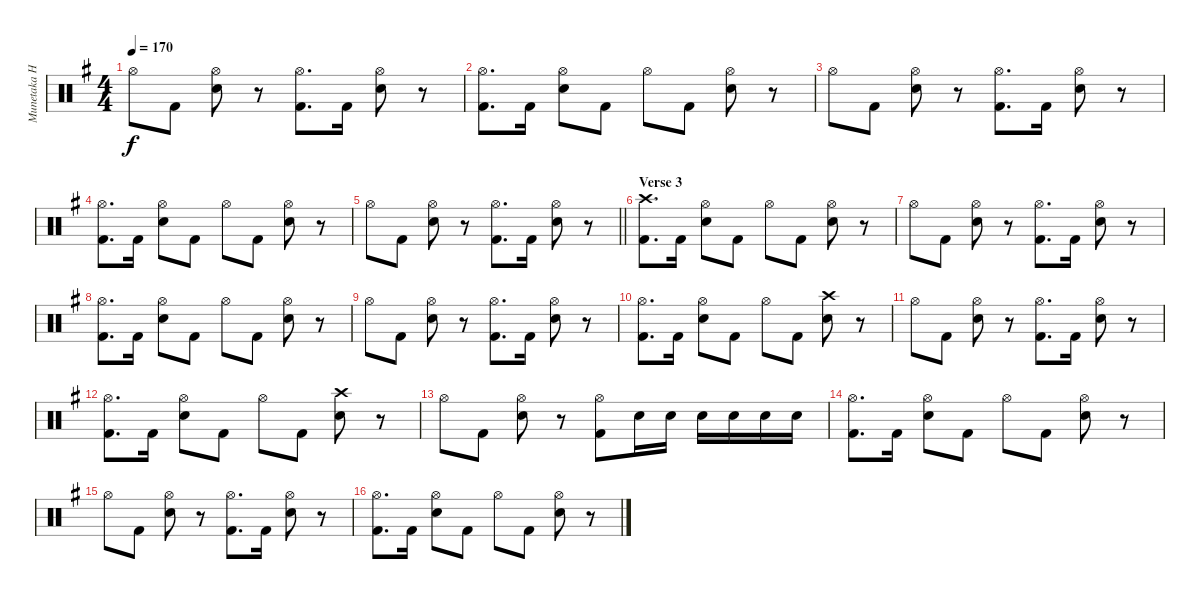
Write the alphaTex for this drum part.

\track ("Munetaka Higuchi" "Munetaka H") {instrument percussion}
\staff {score}
\articulation defaults
\ts (4 4)
\tempo 170
\clef neutral
\ks eminor "Hi-Hat (open)".8{dy f} "Kick (hit) 2".8
("Hi-Hat (open)" "Electric Snare (hit)").8 r.8 ("Hi-Hat (open)" "Kick (hit) 2").8{d} "Kick (hit) 2".16 ("Hi-Hat (open)" "Electric Snare (hit)").8 r.8 |
("Hi-Hat (open)" "Kick (hit) 2").8{d} "Kick (hit) 2".16 ("Hi-Hat (open)" "Electric Snare (hit)").8 "Kick (hit) 2".8 "Hi-Hat (open)".8 "Kick (hit) 2".8 ("Hi-Hat (open)" "Electric Snare (hit)").8 r.8 |
"Hi-Hat (open)".8 "Kick (hit) 2".8 ("Hi-Hat (open)" "Electric Snare (hit)").8 r.8 ("Hi-Hat (open)" "Kick (hit) 2").8{d} "Kick (hit) 2".16 ("Hi-Hat (open)" "Electric Snare (hit)").8 r.8 |
("Hi-Hat (open)" "Kick (hit) 2").8{d} "Kick (hit) 2".16 ("Hi-Hat (open)" "Electric Snare (hit)").8 "Kick (hit) 2".8 "Hi-Hat (open)".8 "Kick (hit) 2".8 ("Hi-Hat (open)" "Electric Snare (hit)").8 r.8 |
\barLineRight lightlight "Hi-Hat (open)".8 "Kick (hit) 2".8
("Hi-Hat (open)" "Electric Snare (hit)").8 r.8 ("Hi-Hat (open)" "Kick (hit) 2").8{d} "Kick (hit) 2".16 ("Hi-Hat (open)" "Electric Snare (hit)").8 r.8 |
\section ("" "Verse 3")
("Crash high (hit)" "Kick (hit) 2").8{d} "Kick (hit) 2".16 ("Hi-Hat (open)" "Electric Snare (hit)").8 "Kick (hit) 2".8 "Hi-Hat (open)".8 "Kick (hit) 2".8 ("Hi-Hat (open)" "Electric Snare (hit)").8 r.8 |
"Hi-Hat (open)".8 "Kick (hit) 2".8 ("Hi-Hat (open)" "Electric Snare (hit)").8 r.8 ("Hi-Hat (open)" "Kick (hit) 2").8{d} "Kick (hit) 2".16 ("Hi-Hat (open)" "Electric Snare (hit)").8 r.8 |
("Hi-Hat (open)" "Kick (hit) 2").8{d} "Kick (hit) 2".16 ("Hi-Hat (open)" "Electric Snare (hit)").8 "Kick (hit) 2".8 "Hi-Hat (open)".8 "Kick (hit) 2".8 ("Hi-Hat (open)" "Electric Snare (hit)").8 r.8 |
"Hi-Hat (open)".8 "Kick (hit) 2".8 ("Hi-Hat (open)" "Electric Snare (hit)").8 r.8 ("Hi-Hat (open)" "Kick (hit) 2").8{d} "Kick (hit) 2".16 ("Hi-Hat (open)" "Electric Snare (hit)").8 r.8 |
("Hi-Hat (open)" "Kick (hit) 2").8{d} "Kick (hit) 2".16 ("Hi-Hat (open)" "Electric Snare (hit)").8 "Kick (hit) 2".8 "Hi-Hat (open)".8 "Kick (hit) 2".8 ("Crash high (hit)" "Electric Snare (hit)").8 r.8 |
"Hi-Hat (open)".8 "Kick (hit) 2".8 ("Hi-Hat (open)" "Electric Snare (hit)").8 r.8 ("Hi-Hat (open)" "Kick (hit) 2").8{d} "Kick (hit) 2".16 ("Hi-Hat (open)" "Electric Snare (hit)").8 r.8 |
("Hi-Hat (open)" "Kick (hit) 2").8{d} "Kick (hit) 2".16 ("Hi-Hat (open)" "Electric Snare (hit)").8 "Kick (hit) 2".8 "Hi-Hat (open)".8 "Kick (hit) 2".8 ("Crash high (hit)" "Electric Snare (hit)").8 r.8 |
"Hi-Hat (open)".8 "Kick (hit) 2".8 ("Hi-Hat (open)" "Electric Snare (hit)").8 r.8 ("Hi-Hat (open)" "Kick (hit) 2").8 "Electric Snare (hit)".16 "Electric Snare (hit)".16 "Electric Snare (hit)".16 "Electric Snare (hit)".16 "Electric Snare (hit)".16 "Electric Snare (hit)".16 |
("Hi-Hat (open)" "Kick (hit) 2").8{d} "Kick (hit) 2".16 ("Hi-Hat (open)" "Electric Snare (hit)").8 "Kick (hit) 2".8 "Hi-Hat (open)".8 "Kick (hit) 2".8 ("Hi-Hat (open)" "Electric Snare (hit)").8 r.8 |
"Hi-Hat (open)".8 "Kick (hit) 2".8 ("Hi-Hat (open)" "Electric Snare (hit)").8 r.8 ("Hi-Hat (open)" "Kick (hit) 2").8{d} "Kick (hit) 2".16 ("Hi-Hat (open)" "Electric Snare (hit)").8 r.8 |
("Hi-Hat (open)" "Kick (hit) 2").8{d} "Kick (hit) 2".16 ("Hi-Hat (open)" "Electric Snare (hit)").8 "Kick (hit) 2".8 "Hi-Hat (open)".8 "Kick (hit) 2".8 ("Hi-Hat (open)" "Electric Snare (hit)").8 r.8
